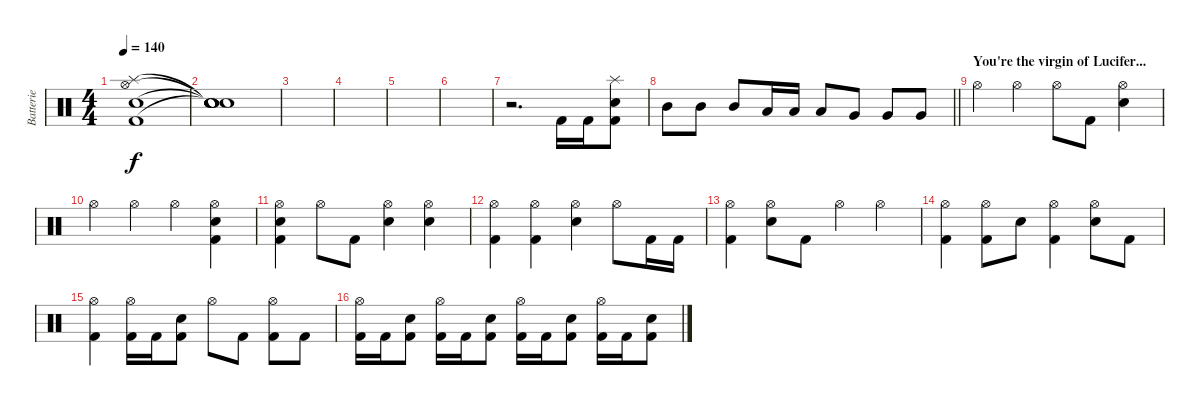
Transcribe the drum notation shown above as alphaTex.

\track ("Batterie" "Batterie") {instrument percussion}
\staff {score}
\articulation defaults
\ts (4 4)
\tempo 140
\clef neutral
\ks c
("Hi-Hat (open)" "Splash (hit)" "Electric Snare (hit)" "Kick (hit) 2").1{dy f} |
("Snare (hit)"{t} "Snare (hit)"{t} "Snare (hit)"{t} "Snare (hit)"{t}).1 |
|
|
|
|
r.2{d} "Kick (hit) 2".16 "Kick (hit) 2".16 ("Splash (hit)" "Electric Snare (hit)" "Kick (hit) 2").8 |
\barLineRight lightlight "Mid Tom (hit)".8 "Mid Tom (hit)".8 "Mid Tom (hit)".8 "Low Tom (hit)".16 "Low Tom (hit)".16 "Low Tom (hit)".8 "Very Low Tom (hit)".8 "Very Low Tom (hit)".8 "Very Low Tom (hit)".8
|
\section ("" "You're the virgin of Lucifer...")
"Hi-Hat (open)".4 "Hi-Hat (open)".4 "Hi-Hat (open)".8 "Kick (hit) 2".8 ("Hi-Hat (open)" "Electric Snare (hit)").4 |
"Hi-Hat (open)".4 "Hi-Hat (open)".4 "Hi-Hat (open)".4 ("Hi-Hat (open)" "Electric Snare (hit)" "Kick (hit) 2").4 |
("Hi-Hat (open)" "Electric Snare (hit)" "Kick (hit) 2").4 "Hi-Hat (open)".8 "Kick (hit) 2".8 ("Hi-Hat (open)" "Electric Snare (hit)").4 ("Hi-Hat (open)" "Electric Snare (hit)").4 |
("Hi-Hat (open)" "Kick (hit) 2").4 ("Hi-Hat (open)" "Kick (hit) 2").4 ("Hi-Hat (open)" "Electric Snare (hit)").4 "Hi-Hat (open)".8 "Kick (hit) 2".16 "Kick (hit) 2".16 |
("Hi-Hat (open)" "Kick (hit) 2").4 ("Hi-Hat (open)" "Electric Snare (hit)").8 "Kick (hit) 2".8 "Hi-Hat (open)".4 "Hi-Hat (open)".4 |
("Hi-Hat (open)" "Kick (hit) 2").4 ("Hi-Hat (open)" "Kick (hit) 2").8 "Electric Snare (hit)".8 ("Hi-Hat (open)" "Kick (hit) 2").4 ("Hi-Hat (open)" "Electric Snare (hit)").8 "Kick (hit) 2".8 |
("Hi-Hat (open)" "Kick (hit) 2").4 ("Hi-Hat (open)" "Kick (hit) 2").16 "Kick (hit) 2".16 ("Electric Snare (hit)" "Kick (hit) 2").8 "Hi-Hat (open)".8 "Kick (hit) 2".8 ("Hi-Hat (open)" "Kick (hit) 2").8 "Kick (hit) 2".8 |
("Hi-Hat (open)" "Kick (hit) 2").16 "Kick (hit) 2".16 ("Electric Snare (hit)" "Kick (hit) 2").8 ("Hi-Hat (open)" "Kick (hit) 2").16 "Kick (hit) 2".16 ("Electric Snare (hit)" "Kick (hit) 2").8 ("Hi-Hat (open)" "Kick (hit) 2").16 "Kick (hit) 2".16 ("Electric Snare (hit)" "Kick (hit) 2").8 ("Hi-Hat (open)" "Kick (hit) 2").16 "Kick (hit) 2".16 ("Electric Snare (hit)" "Kick (hit) 2").8
